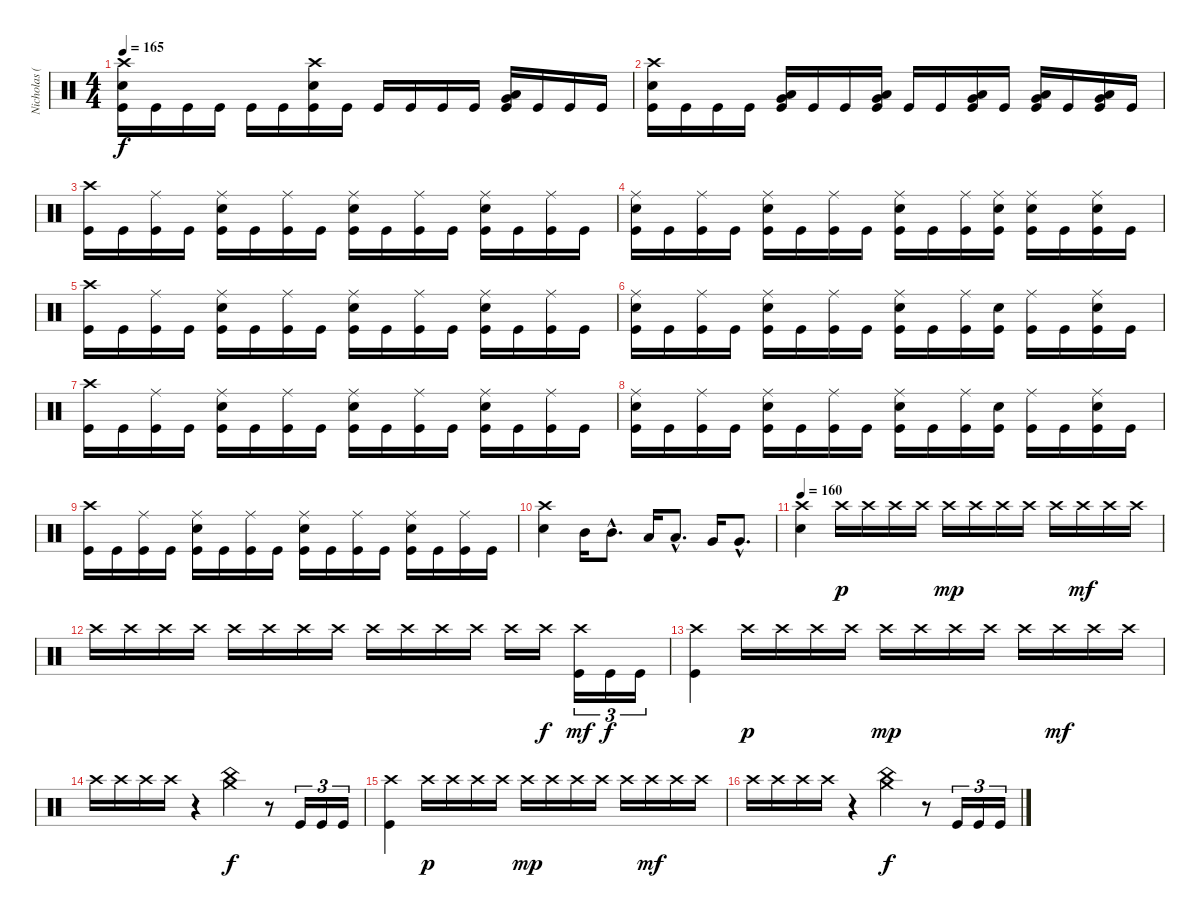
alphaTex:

\track ("Nicholas (Drums)" "Nicholas (") {instrument percussion}
\staff {score}
\articulation defaults
\ts (4 4)
\tempo 165
\clef neutral
\ks c
("Crash high (hit)" "Electric Snare (hit)" "Kick (hit)").16{dy f} "Kick (hit)".16 "Kick (hit)".16 "Kick (hit)".16 "Kick (hit)".16 "Kick (hit)".16 ("Crash high (hit)" "Electric Snare (hit)" "Kick (hit)").16 "Kick (hit)".16 "Kick (hit)".16 "Kick (hit)".16 "Kick (hit)".16 "Kick (hit)".16 ("Low Tom (hit)" "Very Low Tom (hit)" "Kick (hit)").16 "Kick (hit)".16 "Kick (hit)".16 "Kick (hit)".16 |
("Crash high (hit)" "Electric Snare (hit)" "Kick (hit)").16 "Kick (hit)".16 "Kick (hit)".16 "Kick (hit)".16 ("Low Tom (hit)" "Very Low Tom (hit)" "Kick (hit)").16 "Kick (hit)".16 "Kick (hit)".16 ("Very Low Tom (hit)" "Low Tom (hit)" "Kick (hit)").16 "Kick (hit)".16 "Kick (hit)".16 ("Low Tom (hit)" "Very Low Tom (hit)" "Kick (hit)").16 "Kick (hit)".16 ("Low Tom (hit)" "Very Low Tom (hit)" "Kick (hit)").16 "Kick (hit)".16 ("Low Tom (hit)" "Very Low Tom (hit)" "Kick (hit)").16 "Kick (hit)".16 |
("Crash high (hit)" "Kick (hit)").16 "Kick (hit)".16 ("Ride (middle)" "Kick (hit)").16 "Kick (hit)".16 ("Ride (middle)" "Electric Snare (hit)" "Kick (hit)").16 "Kick (hit)".16 ("Ride (middle)" "Kick (hit)").16 "Kick (hit)".16 ("Ride (middle)" "Electric Snare (hit)" "Kick (hit)").16 "Kick (hit)".16 ("Ride (middle)" "Kick (hit)").16 "Kick (hit)".16 ("Ride (middle)" "Electric Snare (hit)" "Kick (hit)").16 "Kick (hit)".16 ("Ride (middle)" "Kick (hit)").16 "Kick (hit)".16 |
("Ride (middle)" "Electric Snare (hit)" "Kick (hit)").16 "Kick (hit)".16 ("Ride (middle)" "Kick (hit)").16 "Kick (hit)".16 ("Ride (middle)" "Electric Snare (hit)" "Kick (hit)").16 "Kick (hit)".16 ("Ride (middle)" "Kick (hit)").16 "Kick (hit)".16 ("Ride (middle)" "Electric Snare (hit)" "Kick (hit)").16 "Kick (hit)".16 ("Ride (middle)" "Kick (hit)").16 ("Ride (middle)" "Electric Snare (hit)" "Kick (hit)").16 ("Ride (middle)" "Electric Snare (hit)" "Kick (hit)").16 "Kick (hit)".16 ("Ride (middle)" "Electric Snare (hit)" "Kick (hit)").16 "Kick (hit)".16 |
("Crash high (hit)" "Kick (hit)").16 "Kick (hit)".16 ("Ride (middle)" "Kick (hit)").16 "Kick (hit)".16 ("Ride (middle)" "Electric Snare (hit)" "Kick (hit)").16 "Kick (hit)".16 ("Ride (middle)" "Kick (hit)").16 "Kick (hit)".16 ("Ride (middle)" "Electric Snare (hit)" "Kick (hit)").16 "Kick (hit)".16 ("Ride (middle)" "Kick (hit)").16 "Kick (hit)".16 ("Ride (middle)" "Electric Snare (hit)" "Kick (hit)").16 "Kick (hit)".16 ("Ride (middle)" "Kick (hit)").16 "Kick (hit)".16 |
("Ride (middle)" "Electric Snare (hit)" "Kick (hit)").16 "Kick (hit)".16 ("Ride (middle)" "Kick (hit)").16 "Kick (hit)".16 ("Ride (middle)" "Electric Snare (hit)" "Kick (hit)").16 "Kick (hit)".16 ("Ride (middle)" "Kick (hit)").16 "Kick (hit)".16 ("Ride (middle)" "Electric Snare (hit)" "Kick (hit)").16 "Kick (hit)".16 ("Ride (middle)" "Kick (hit)").16 ("Electric Snare (hit)" "Kick (hit)").16 ("Ride (middle)" "Kick (hit)").16 "Kick (hit)".16 ("Ride (middle)" "Electric Snare (hit)" "Kick (hit)").16 "Kick (hit)".16 |
("Crash high (hit)" "Kick (hit)").16 "Kick (hit)".16 ("Ride (middle)" "Kick (hit)").16 "Kick (hit)".16 ("Ride (middle)" "Electric Snare (hit)" "Kick (hit)").16 "Kick (hit)".16 ("Ride (middle)" "Kick (hit)").16 "Kick (hit)".16 ("Ride (middle)" "Electric Snare (hit)" "Kick (hit)").16 "Kick (hit)".16 ("Ride (middle)" "Kick (hit)").16 "Kick (hit)".16 ("Ride (middle)" "Electric Snare (hit)" "Kick (hit)").16 "Kick (hit)".16 ("Ride (middle)" "Kick (hit)").16 "Kick (hit)".16 |
("Ride (middle)" "Electric Snare (hit)" "Kick (hit)").16 "Kick (hit)".16 ("Ride (middle)" "Kick (hit)").16 "Kick (hit)".16 ("Ride (middle)" "Electric Snare (hit)" "Kick (hit)").16 "Kick (hit)".16 ("Ride (middle)" "Kick (hit)").16 "Kick (hit)".16 ("Ride (middle)" "Electric Snare (hit)" "Kick (hit)").16 "Kick (hit)".16 ("Ride (middle)" "Kick (hit)").16 ("Electric Snare (hit)" "Kick (hit)").16 ("Ride (middle)" "Kick (hit)").16 "Kick (hit)".16 ("Ride (middle)" "Electric Snare (hit)" "Kick (hit)").16 "Kick (hit)".16 |
("Crash high (hit)" "Kick (hit)").16 "Kick (hit)".16 ("Ride (middle)" "Kick (hit)").16 "Kick (hit)".16 ("Ride (middle)" "Electric Snare (hit)" "Kick (hit)").16 "Kick (hit)".16 ("Ride (middle)" "Kick (hit)").16 "Kick (hit)".16 ("Ride (middle)" "Electric Snare (hit)" "Kick (hit)").16 "Kick (hit)".16 ("Ride (middle)" "Kick (hit)").16 "Kick (hit)".16 ("Ride (middle)" "Electric Snare (hit)" "Kick (hit)").16 "Kick (hit)".16 ("Ride (middle)" "Kick (hit)").16 "Kick (hit)".16 |
("Crash high (hit)" "Electric Snare (hit)").4 "Mid Tom (hit)".16 "Mid Tom (hit)"{hac}.8{d} "Low Tom (hit)".16 "Low Tom (hit)"{hac}.8{d} "Very Low Tom (hit)".16 "Very Low Tom (hit)"{hac}.8{d} |
\tempo 160
("Crash high (hit)" "Electric Snare (hit)").4 "Crash high (hit)".16{dy p} "Crash high (hit)".16 "Crash high (hit)".16 "Crash high (hit)".16 "Crash high (hit)".16{dy mp} "Crash high (hit)".16 "Crash high (hit)".16 "Crash high (hit)".16 "Crash high (hit)".16 "Crash high (hit)".16{dy mf} "Crash high (hit)".16 "Crash high (hit)".16 |
"Crash high (hit)".16 "Crash high (hit)".16 "Crash high (hit)".16 "Crash high (hit)".16 "Crash high (hit)".16 "Crash high (hit)".16 "Crash high (hit)".16 "Crash high (hit)".16 "Crash high (hit)".16 "Crash high (hit)".16 "Crash high (hit)".16 "Crash high (hit)".16 "Crash high (hit)".16 "Crash high (hit)".16{dy f} ("Crash high (hit)" "Kick (hit)").16{tu (3 2) dy mf} "Kick (hit)".16{tu (3 2) dy f} "Kick (hit)".16{tu (3 2)} |
("Crash high (hit)" "Kick (hit)").4 "Crash high (hit)".16{dy p} "Crash high (hit)".16 "Crash high (hit)".16 "Crash high (hit)".16 "Crash high (hit)".16{dy mp} "Crash high (hit)".16 "Crash high (hit)".16 "Crash high (hit)".16 "Crash high (hit)".16 "Crash high (hit)".16{dy mf} "Crash high (hit)".16 "Crash high (hit)".16 |
"Crash high (hit)".16 "Crash high (hit)".16 "Crash high (hit)".16 "Crash high (hit)".16 r.4 ("Crash medium (hit)" "China (hit)").4{dy f} r.8 "Kick (hit)".16{tu (3 2)} "Kick (hit)".16{tu (3 2)} "Kick (hit)".16{tu (3 2)} |
("Crash high (hit)" "Kick (hit)").4 "Crash high (hit)".16{dy p} "Crash high (hit)".16 "Crash high (hit)".16 "Crash high (hit)".16 "Crash high (hit)".16{dy mp} "Crash high (hit)".16 "Crash high (hit)".16 "Crash high (hit)".16 "Crash high (hit)".16 "Crash high (hit)".16{dy mf} "Crash high (hit)".16 "Crash high (hit)".16 |
"Crash high (hit)".16 "Crash high (hit)".16 "Crash high (hit)".16 "Crash high (hit)".16 r.4 ("Crash medium (hit)" "China (hit)").4{dy f} r.8 "Kick (hit)".16{tu (3 2)} "Kick (hit)".16{tu (3 2)} "Kick (hit)".16{tu (3 2)}
